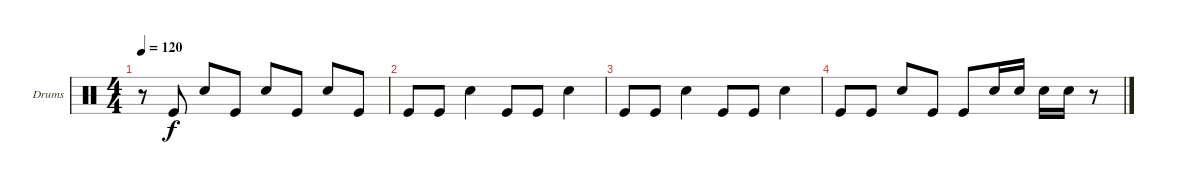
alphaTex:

\bracketExtendMode groupsimilarinstruments
\firstSystemTrackNameOrientation horizontal
\otherSystemsTrackNameOrientation horizontal
\track ("Drumkit" "Drums") {instrument percussion}
\staff {score}
\articulation defaults
\ts (4 4)
\tempo 120
\clef neutral
\ks c
r.8{dy f} "Kick (hit)".8 "Snare (hit) 2".8 "Kick (hit)".8 "Snare (hit) 2".8 "Kick (hit)".8 "Snare (hit) 2".8 "Kick (hit)".8 |
"Kick (hit)".8 "Kick (hit)".8 "Snare (hit) 2".4 "Kick (hit)".8 "Kick (hit)".8 "Snare (hit) 2".4 |
"Kick (hit)".8 "Kick (hit)".8 "Snare (hit) 2".4 "Kick (hit)".8 "Kick (hit)".8 "Snare (hit) 2".4 |
"Kick (hit)".8 "Kick (hit)".8 "Snare (hit) 2".8 "Kick (hit)".8 "Kick (hit)".8 "Snare (hit) 2".16 "Snare (hit) 2".16 "Snare (hit) 2".16 "Snare (hit) 2".16 r.8
